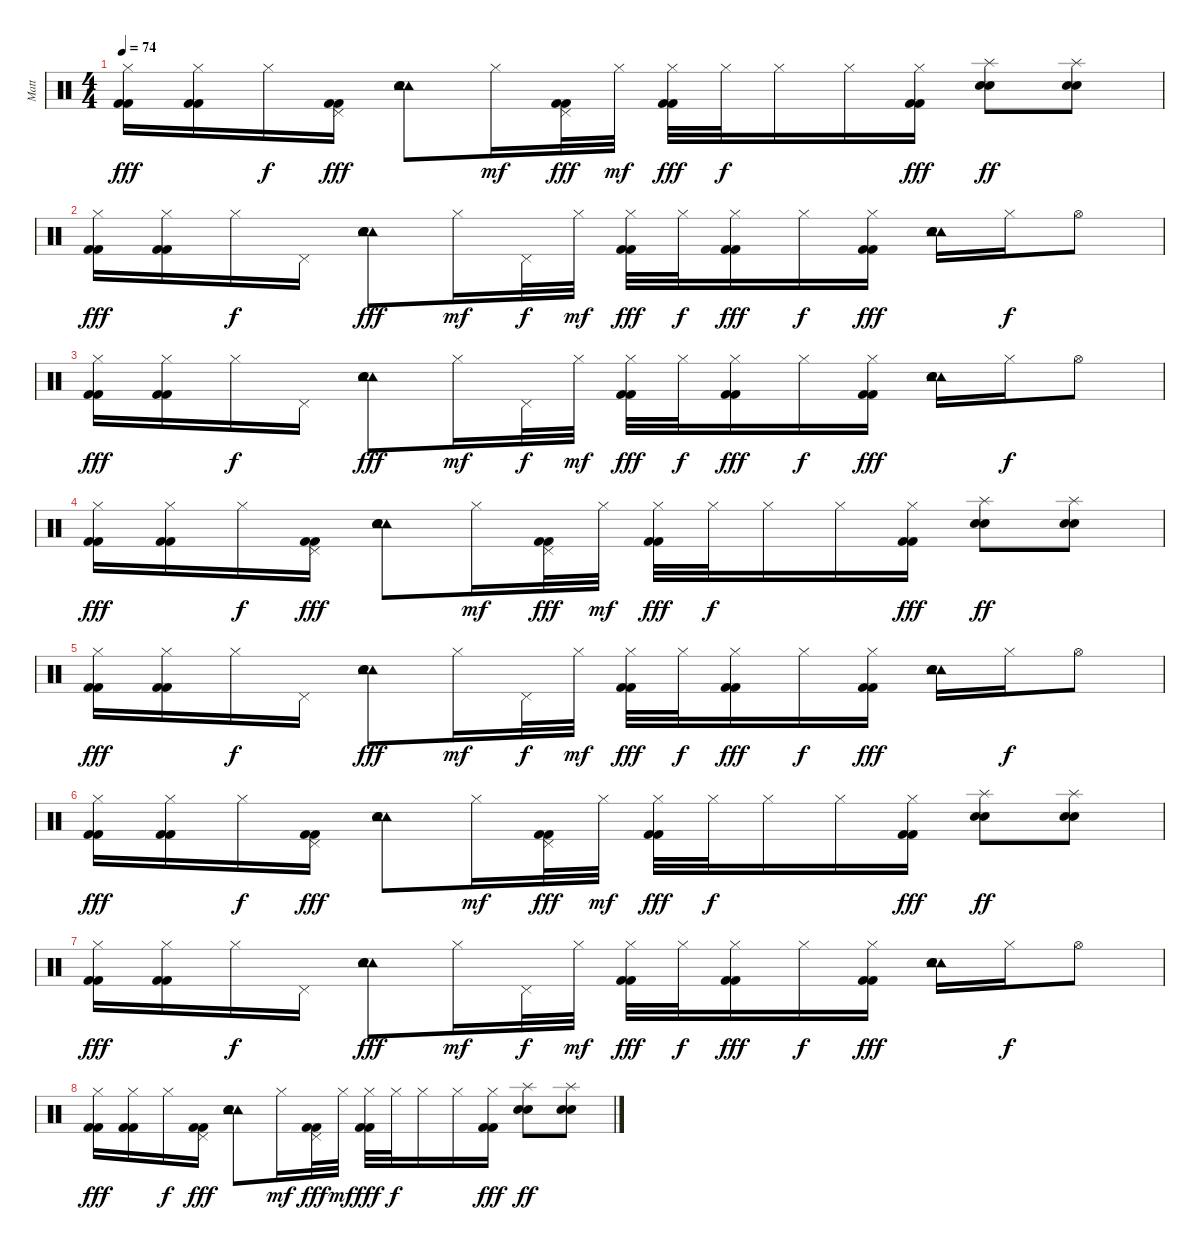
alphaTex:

\track ("Matt" "Matt") {instrument percussion}
\staff {score}
\articulation defaults
\ts (4 4)
\tempo 74
\clef neutral
\ks c
("Hi-Hat (closed)" "Kick (hit) 2" "Kick (hit) 2").16{dy fff} ("Hi-Hat (closed)" "Kick (hit) 2" "Kick (hit) 2").16 "Hi-Hat (closed)".16{dy f} ("Pedal Hi-Hat (hit)" "Kick (hit) 2" "Kick (hit) 2").16{dy fff} ("Tambourine (hit)" "Tambourine (hit)" "Electric Snare (hit)" "Electric Snare (hit)").8 "Hi-Hat (closed)".16{dy mf} ("Pedal Hi-Hat (hit)" "Kick (hit) 2" "Kick (hit) 2").32{dy fff} "Hi-Hat (closed)".32{dy mf} ("Hi-Hat (closed)" "Kick (hit) 2" "Kick (hit) 2").32{dy fff} "Hi-Hat (closed)".32{dy f} "Hi-Hat (closed)".16 "Hi-Hat (closed)".16 ("Hi-Hat (closed)" "Kick (hit) 2" "Kick (hit) 2").16{dy fff} ("Splash (hit)" "Electric Snare (hit)" "Electric Snare (hit)").8{dy ff} ("Splash (hit)" "Electric Snare (hit)" "Electric Snare (hit)").8 |
("Hi-Hat (closed)" "Kick (hit) 2" "Kick (hit) 2").16{dy fff} ("Hi-Hat (closed)" "Kick (hit) 2" "Kick (hit) 2").16 "Hi-Hat (closed)".16{dy f} "Pedal Hi-Hat (hit)".16 ("Tambourine (hit)" "Tambourine (hit)" "Electric Snare (hit)" "Electric Snare (hit)").8{dy fff} "Hi-Hat (closed)".16{dy mf} "Pedal Hi-Hat (hit)".32{dy f} "Hi-Hat (closed)".32{dy mf} ("Hi-Hat (closed)" "Kick (hit) 2" "Kick (hit) 2").32{dy fff} "Hi-Hat (closed)".32{dy f} ("Hi-Hat (closed)" "Kick (hit) 2" "Kick (hit) 2").16{dy fff} "Hi-Hat (closed)".16{dy f} ("Hi-Hat (closed)" "Kick (hit) 2" "Kick (hit) 2").16{dy fff} ("Tambourine (hit)" "Tambourine (hit)" "Electric Snare (hit)" "Electric Snare (hit)").16 "Hi-Hat (closed)".16{dy f} "Hi-Hat (open)".8 |
("Hi-Hat (closed)" "Kick (hit) 2" "Kick (hit) 2").16{dy fff} ("Hi-Hat (closed)" "Kick (hit) 2" "Kick (hit) 2").16 "Hi-Hat (closed)".16{dy f} "Pedal Hi-Hat (hit)".16 ("Tambourine (hit)" "Tambourine (hit)" "Electric Snare (hit)" "Electric Snare (hit)").8{dy fff} "Hi-Hat (closed)".16{dy mf} "Pedal Hi-Hat (hit)".32{dy f} "Hi-Hat (closed)".32{dy mf} ("Hi-Hat (closed)" "Kick (hit) 2" "Kick (hit) 2").32{dy fff} "Hi-Hat (closed)".32{dy f} ("Hi-Hat (closed)" "Kick (hit) 2" "Kick (hit) 2").16{dy fff} "Hi-Hat (closed)".16{dy f} ("Hi-Hat (closed)" "Kick (hit) 2" "Kick (hit) 2").16{dy fff} ("Tambourine (hit)" "Tambourine (hit)" "Electric Snare (hit)" "Electric Snare (hit)").16 "Hi-Hat (closed)".16{dy f} "Hi-Hat (open)".8 |
("Hi-Hat (closed)" "Kick (hit) 2" "Kick (hit) 2").16{dy fff} ("Hi-Hat (closed)" "Kick (hit) 2" "Kick (hit) 2").16 "Hi-Hat (closed)".16{dy f} ("Pedal Hi-Hat (hit)" "Kick (hit) 2" "Kick (hit) 2").16{dy fff} ("Tambourine (hit)" "Tambourine (hit)" "Electric Snare (hit)" "Electric Snare (hit)").8 "Hi-Hat (closed)".16{dy mf} ("Pedal Hi-Hat (hit)" "Kick (hit) 2" "Kick (hit) 2").32{dy fff} "Hi-Hat (closed)".32{dy mf} ("Hi-Hat (closed)" "Kick (hit) 2" "Kick (hit) 2").32{dy fff} "Hi-Hat (closed)".32{dy f} "Hi-Hat (closed)".16 "Hi-Hat (closed)".16 ("Hi-Hat (closed)" "Kick (hit) 2" "Kick (hit) 2").16{dy fff} ("Splash (hit)" "Electric Snare (hit)" "Electric Snare (hit)").8{dy ff} ("Splash (hit)" "Electric Snare (hit)" "Electric Snare (hit)").8 |
("Hi-Hat (closed)" "Kick (hit) 2" "Kick (hit) 2").16{dy fff} ("Hi-Hat (closed)" "Kick (hit) 2" "Kick (hit) 2").16 "Hi-Hat (closed)".16{dy f} "Pedal Hi-Hat (hit)".16 ("Tambourine (hit)" "Tambourine (hit)" "Electric Snare (hit)" "Electric Snare (hit)").8{dy fff} "Hi-Hat (closed)".16{dy mf} "Pedal Hi-Hat (hit)".32{dy f} "Hi-Hat (closed)".32{dy mf} ("Hi-Hat (closed)" "Kick (hit) 2" "Kick (hit) 2").32{dy fff} "Hi-Hat (closed)".32{dy f} ("Hi-Hat (closed)" "Kick (hit) 2" "Kick (hit) 2").16{dy fff} "Hi-Hat (closed)".16{dy f} ("Hi-Hat (closed)" "Kick (hit) 2" "Kick (hit) 2").16{dy fff} ("Tambourine (hit)" "Tambourine (hit)" "Electric Snare (hit)" "Electric Snare (hit)").16 "Hi-Hat (closed)".16{dy f} "Hi-Hat (open)".8 |
("Hi-Hat (closed)" "Kick (hit) 2" "Kick (hit) 2").16{dy fff} ("Hi-Hat (closed)" "Kick (hit) 2" "Kick (hit) 2").16 "Hi-Hat (closed)".16{dy f} ("Pedal Hi-Hat (hit)" "Kick (hit) 2" "Kick (hit) 2").16{dy fff} ("Tambourine (hit)" "Tambourine (hit)" "Electric Snare (hit)" "Electric Snare (hit)").8 "Hi-Hat (closed)".16{dy mf} ("Pedal Hi-Hat (hit)" "Kick (hit) 2" "Kick (hit) 2").32{dy fff} "Hi-Hat (closed)".32{dy mf} ("Hi-Hat (closed)" "Kick (hit) 2" "Kick (hit) 2").32{dy fff} "Hi-Hat (closed)".32{dy f} "Hi-Hat (closed)".16 "Hi-Hat (closed)".16 ("Hi-Hat (closed)" "Kick (hit) 2" "Kick (hit) 2").16{dy fff} ("Splash (hit)" "Electric Snare (hit)" "Electric Snare (hit)").8{dy ff} ("Splash (hit)" "Electric Snare (hit)" "Electric Snare (hit)").8 |
("Hi-Hat (closed)" "Kick (hit) 2" "Kick (hit) 2").16{dy fff} ("Hi-Hat (closed)" "Kick (hit) 2" "Kick (hit) 2").16 "Hi-Hat (closed)".16{dy f} "Pedal Hi-Hat (hit)".16 ("Tambourine (hit)" "Tambourine (hit)" "Electric Snare (hit)" "Electric Snare (hit)").8{dy fff} "Hi-Hat (closed)".16{dy mf} "Pedal Hi-Hat (hit)".32{dy f} "Hi-Hat (closed)".32{dy mf} ("Hi-Hat (closed)" "Kick (hit) 2" "Kick (hit) 2").32{dy fff} "Hi-Hat (closed)".32{dy f} ("Hi-Hat (closed)" "Kick (hit) 2" "Kick (hit) 2").16{dy fff} "Hi-Hat (closed)".16{dy f} ("Hi-Hat (closed)" "Kick (hit) 2" "Kick (hit) 2").16{dy fff} ("Tambourine (hit)" "Tambourine (hit)" "Electric Snare (hit)" "Electric Snare (hit)").16 "Hi-Hat (closed)".16{dy f} "Hi-Hat (open)".8 |
("Hi-Hat (closed)" "Kick (hit) 2" "Kick (hit) 2").16{dy fff} ("Hi-Hat (closed)" "Kick (hit) 2" "Kick (hit) 2").16 "Hi-Hat (closed)".16{dy f} ("Pedal Hi-Hat (hit)" "Kick (hit) 2" "Kick (hit) 2").16{dy fff} ("Tambourine (hit)" "Tambourine (hit)" "Electric Snare (hit)" "Electric Snare (hit)").8 "Hi-Hat (closed)".16{dy mf} ("Pedal Hi-Hat (hit)" "Kick (hit) 2" "Kick (hit) 2").32{dy fff} "Hi-Hat (closed)".32{dy mf} ("Hi-Hat (closed)" "Kick (hit) 2" "Kick (hit) 2").32{dy fff} "Hi-Hat (closed)".32{dy f} "Hi-Hat (closed)".16 "Hi-Hat (closed)".16 ("Hi-Hat (closed)" "Kick (hit) 2" "Kick (hit) 2").16{dy fff} ("Splash (hit)" "Electric Snare (hit)" "Electric Snare (hit)").8{dy ff} ("Splash (hit)" "Electric Snare (hit)" "Electric Snare (hit)").8
